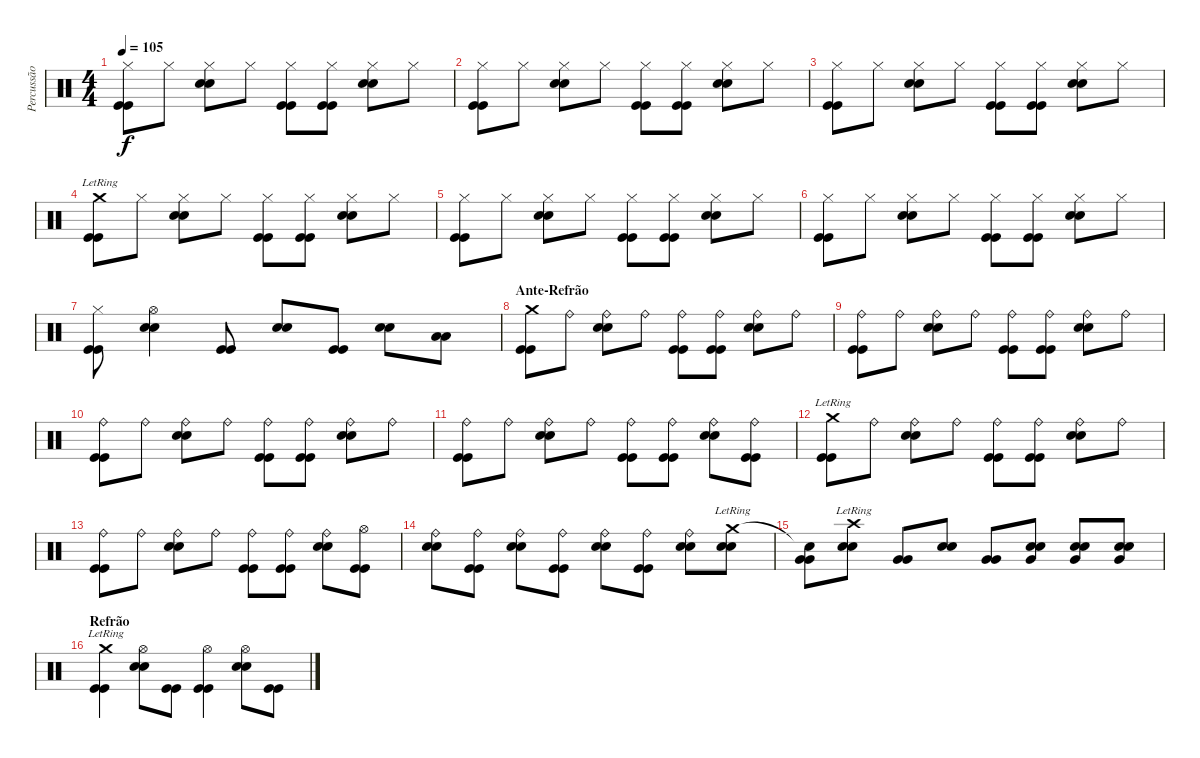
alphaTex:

\track ("Percussão" "Percussão") {instrument percussion}
\staff {score}
\articulation defaults
\ts (4 4)
\tempo 105
\clef neutral
\ks c
("Hi-Hat (closed)" "Kick (hit)" "Kick (hit)").8{dy f} "Hi-Hat (closed)".8 ("Hi-Hat (closed)" "Electric Snare (hit)" "Electric Snare (hit)").8 "Hi-Hat (closed)".8 ("Hi-Hat (closed)" "Kick (hit)" "Kick (hit)").8 ("Hi-Hat (closed)" "Kick (hit)" "Kick (hit)").8 ("Hi-Hat (closed)" "Electric Snare (hit)" "Electric Snare (hit)").8 "Hi-Hat (closed)".8 |
("Hi-Hat (closed)" "Kick (hit)" "Kick (hit)").8 "Hi-Hat (closed)".8 ("Hi-Hat (closed)" "Electric Snare (hit)" "Electric Snare (hit)").8 "Hi-Hat (closed)".8 ("Hi-Hat (closed)" "Kick (hit)" "Kick (hit)").8 ("Hi-Hat (closed)" "Kick (hit)" "Kick (hit)").8 ("Hi-Hat (closed)" "Electric Snare (hit)" "Electric Snare (hit)").8 "Hi-Hat (closed)".8 |
("Hi-Hat (closed)" "Kick (hit)" "Kick (hit)").8 "Hi-Hat (closed)".8 ("Hi-Hat (closed)" "Electric Snare (hit)" "Electric Snare (hit)").8 "Hi-Hat (closed)".8 ("Hi-Hat (closed)" "Kick (hit)" "Kick (hit)").8 ("Hi-Hat (closed)" "Kick (hit)" "Kick (hit)").8 ("Hi-Hat (closed)" "Electric Snare (hit)" "Electric Snare (hit)").8 "Hi-Hat (closed)".8 |
("Crash medium (hit)"{lr} "Kick (hit)" "Kick (hit)").8 "Hi-Hat (closed)".8 ("Hi-Hat (closed)" "Electric Snare (hit)" "Electric Snare (hit)").8 "Hi-Hat (closed)".8 ("Hi-Hat (closed)" "Kick (hit)" "Kick (hit)").8 ("Hi-Hat (closed)" "Kick (hit)" "Kick (hit)").8 ("Hi-Hat (closed)" "Electric Snare (hit)" "Electric Snare (hit)").8 "Hi-Hat (closed)".8 |
("Hi-Hat (closed)" "Kick (hit)" "Kick (hit)").8 "Hi-Hat (closed)".8 ("Hi-Hat (closed)" "Electric Snare (hit)" "Electric Snare (hit)").8 "Hi-Hat (closed)".8 ("Hi-Hat (closed)" "Kick (hit)" "Kick (hit)").8 ("Hi-Hat (closed)" "Kick (hit)" "Kick (hit)").8 ("Hi-Hat (closed)" "Electric Snare (hit)" "Electric Snare (hit)").8 "Hi-Hat (closed)".8 |
("Hi-Hat (closed)" "Kick (hit)" "Kick (hit)").8 "Hi-Hat (closed)".8 ("Hi-Hat (closed)" "Electric Snare (hit)" "Electric Snare (hit)").8 "Hi-Hat (closed)".8 ("Hi-Hat (closed)" "Kick (hit)" "Kick (hit)").8 ("Hi-Hat (closed)" "Kick (hit)" "Kick (hit)").8 ("Hi-Hat (closed)" "Electric Snare (hit)" "Electric Snare (hit)").8 "Hi-Hat (closed)".8 |
("Hi-Hat (closed)" "Kick (hit)" "Kick (hit)").8 ("Hi-Hat (open)" "Electric Snare (hit)" "Electric Snare (hit)").4 ("Kick (hit)" "Kick (hit)").8 ("Electric Snare (hit)" "Electric Snare (hit)").8 ("Kick (hit)" "Kick (hit)").8 ("Electric Snare (hit)" "Electric Snare (hit)").8 ("Low Tom (hit)" "Low Tom (hit)").8 |
\section ("" "Ante-Refrão")
("Crash medium (hit)" "Kick (hit)" "Kick (hit)").8 "Ride (bell)".8 ("Ride (bell)" "Electric Snare (hit)" "Electric Snare (hit)").8 "Ride (bell)".8 ("Ride (bell)" "Kick (hit)" "Kick (hit)").8 ("Ride (bell)" "Kick (hit)" "Kick (hit)").8 ("Ride (bell)" "Electric Snare (hit)" "Electric Snare (hit)").8 "Ride (bell)".8 |
("Ride (bell)" "Kick (hit)" "Kick (hit)").8 "Ride (bell)".8 ("Ride (bell)" "Electric Snare (hit)" "Electric Snare (hit)").8 "Ride (bell)".8 ("Ride (bell)" "Kick (hit)" "Kick (hit)").8 ("Ride (bell)" "Kick (hit)" "Kick (hit)").8 ("Ride (bell)" "Electric Snare (hit)" "Electric Snare (hit)").8 "Ride (bell)".8 |
("Ride (bell)" "Kick (hit)" "Kick (hit)").8 "Ride (bell)".8 ("Ride (bell)" "Electric Snare (hit)" "Electric Snare (hit)").8 "Ride (bell)".8 ("Ride (bell)" "Kick (hit)" "Kick (hit)").8 ("Ride (bell)" "Kick (hit)" "Kick (hit)").8 ("Ride (bell)" "Electric Snare (hit)" "Electric Snare (hit)").8 "Ride (bell)".8 |
("Ride (bell)" "Kick (hit)" "Kick (hit)").8 "Ride (bell)".8 ("Ride (bell)" "Electric Snare (hit)" "Electric Snare (hit)").8 "Ride (bell)".8 ("Ride (bell)" "Kick (hit)" "Kick (hit)").8 ("Ride (bell)" "Kick (hit)" "Kick (hit)").8 ("Ride (bell)" "Electric Snare (hit)" "Electric Snare (hit)").8 ("Ride (bell)" "Kick (hit)" "Kick (hit)").8 |
("Crash medium (hit)"{lr} "Kick (hit)" "Kick (hit)").8 "Ride (bell)".8 ("Ride (bell)" "Electric Snare (hit)" "Electric Snare (hit)").8 "Ride (bell)".8 ("Ride (bell)" "Kick (hit)" "Kick (hit)").8 ("Ride (bell)" "Kick (hit)" "Kick (hit)").8 ("Ride (bell)" "Electric Snare (hit)" "Electric Snare (hit)").8 "Ride (bell)".8 |
("Ride (bell)" "Kick (hit)" "Kick (hit)").8 "Ride (bell)".8 ("Ride (bell)" "Electric Snare (hit)" "Electric Snare (hit)").8 "Ride (bell)".8 ("Ride (bell)" "Kick (hit)" "Kick (hit)").8 ("Ride (bell)" "Kick (hit)" "Kick (hit)").8 ("Ride (bell)" "Electric Snare (hit)" "Electric Snare (hit)").8 ("Hi-Hat (open)" "Kick (hit)" "Kick (hit)").8 |
("Ride (bell)" "Electric Snare (hit)" "Electric Snare (hit)").8 ("Ride (bell)" "Kick (hit)" "Kick (hit)").8 ("Ride (bell)" "Electric Snare (hit)" "Electric Snare (hit)").8 ("Ride (bell)" "Kick (hit)" "Kick (hit)").8 ("Ride (bell)" "Electric Snare (hit)" "Electric Snare (hit)").8 ("Ride (bell)" "Kick (hit)" "Kick (hit)").8 ("Ride (bell)" "Electric Snare (hit)" "Electric Snare (hit)").8 ("Crash medium (hit)"{lr} "Electric Snare (hit)" "Electric Snare (hit)").8 |
("Snare (hit)"{t} "Very Low Tom (hit)" "Very Low Tom (hit)").8 ("Crash high (hit)"{lr} "Electric Snare (hit)" "Electric Snare (hit)").8 ("Very Low Tom (hit)" "Very Low Tom (hit)").8 ("Electric Snare (hit)" "Electric Snare (hit)").8 ("Very Low Tom (hit)" "Very Low Tom (hit)").8 ("Very Low Tom (hit)" "Electric Snare (hit)" "Electric Snare (hit)").8 ("Very Low Tom (hit)" "Electric Snare (hit)" "Electric Snare (hit)").8 ("Very Low Tom (hit)" "Electric Snare (hit)" "Electric Snare (hit)").8 |
\section ("" "Refrão")
("Crash medium (hit)"{lr} "Kick (hit)" "Kick (hit)").4 ("Hi-Hat (open)" "Electric Snare (hit)" "Electric Snare (hit)").8 ("Kick (hit)" "Kick (hit)").8 ("Hi-Hat (open)" "Kick (hit)" "Kick (hit)").4 ("Hi-Hat (open)" "Electric Snare (hit)" "Electric Snare (hit)").8 ("Kick (hit)" "Kick (hit)").8
